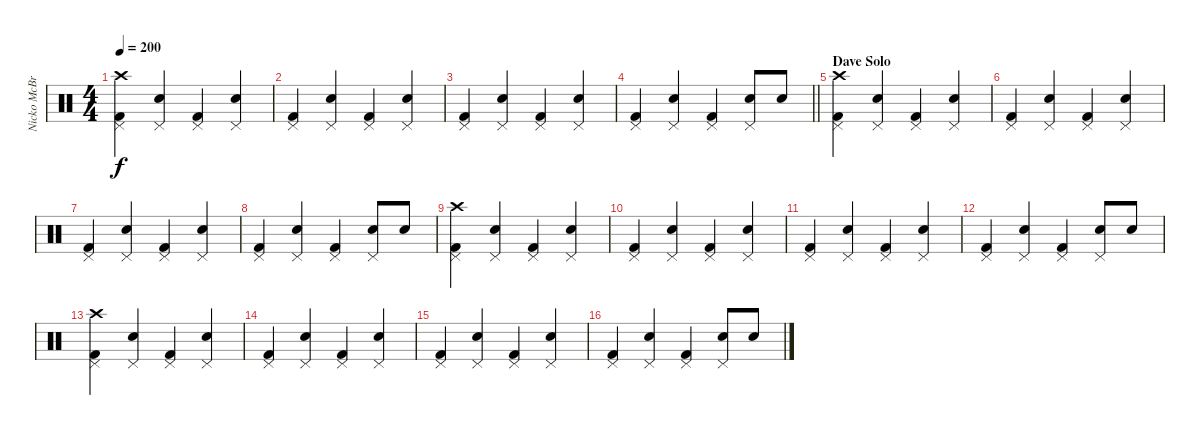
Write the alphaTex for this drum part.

\track ("Nicko McBrain" "Nicko McBr") {instrument percussion}
\staff {score}
\articulation defaults
\ts (4 4)
\tempo 200
\clef neutral
\ks c
("Pedal Hi-Hat (hit)" "Kick (hit) 2" "Crash high (hit)").4{dy f} ("Pedal Hi-Hat (hit)" "Snare (hit) 2").4 ("Pedal Hi-Hat (hit)" "Kick (hit) 2").4 ("Pedal Hi-Hat (hit)" "Snare (hit) 2").4 |
("Pedal Hi-Hat (hit)" "Kick (hit) 2").4 ("Pedal Hi-Hat (hit)" "Snare (hit) 2").4 ("Pedal Hi-Hat (hit)" "Kick (hit) 2").4 ("Pedal Hi-Hat (hit)" "Snare (hit) 2").4 |
("Pedal Hi-Hat (hit)" "Kick (hit) 2").4 ("Pedal Hi-Hat (hit)" "Snare (hit) 2").4 ("Pedal Hi-Hat (hit)" "Kick (hit) 2").4 ("Pedal Hi-Hat (hit)" "Snare (hit) 2").4 |
\barLineRight lightlight
("Pedal Hi-Hat (hit)" "Kick (hit) 2").4 ("Pedal Hi-Hat (hit)" "Snare (hit) 2").4 ("Pedal Hi-Hat (hit)" "Kick (hit) 2").4 ("Pedal Hi-Hat (hit)" "Snare (hit) 2").8 "Snare (hit) 2".8 |
\section ("" "Dave Solo")
("Pedal Hi-Hat (hit)" "Kick (hit) 2" "Crash high (hit)").4 ("Pedal Hi-Hat (hit)" "Snare (hit) 2").4 ("Pedal Hi-Hat (hit)" "Kick (hit) 2").4 ("Pedal Hi-Hat (hit)" "Snare (hit) 2").4 |
("Pedal Hi-Hat (hit)" "Kick (hit) 2").4 ("Pedal Hi-Hat (hit)" "Snare (hit) 2").4 ("Pedal Hi-Hat (hit)" "Kick (hit) 2").4 ("Pedal Hi-Hat (hit)" "Snare (hit) 2").4 |
("Pedal Hi-Hat (hit)" "Kick (hit) 2").4 ("Pedal Hi-Hat (hit)" "Snare (hit) 2").4 ("Pedal Hi-Hat (hit)" "Kick (hit) 2").4 ("Pedal Hi-Hat (hit)" "Snare (hit) 2").4 |
("Pedal Hi-Hat (hit)" "Kick (hit) 2").4 ("Pedal Hi-Hat (hit)" "Snare (hit) 2").4 ("Pedal Hi-Hat (hit)" "Kick (hit) 2").4 ("Pedal Hi-Hat (hit)" "Snare (hit) 2").8 "Snare (hit) 2".8 |
("Pedal Hi-Hat (hit)" "Kick (hit) 2" "Crash high (hit)").4 ("Pedal Hi-Hat (hit)" "Snare (hit) 2").4 ("Pedal Hi-Hat (hit)" "Kick (hit) 2").4 ("Pedal Hi-Hat (hit)" "Snare (hit) 2").4 |
("Pedal Hi-Hat (hit)" "Kick (hit) 2").4 ("Pedal Hi-Hat (hit)" "Snare (hit) 2").4 ("Pedal Hi-Hat (hit)" "Kick (hit) 2").4 ("Pedal Hi-Hat (hit)" "Snare (hit) 2").4 |
("Pedal Hi-Hat (hit)" "Kick (hit) 2").4 ("Pedal Hi-Hat (hit)" "Snare (hit) 2").4 ("Pedal Hi-Hat (hit)" "Kick (hit) 2").4 ("Pedal Hi-Hat (hit)" "Snare (hit) 2").4 |
("Pedal Hi-Hat (hit)" "Kick (hit) 2").4 ("Pedal Hi-Hat (hit)" "Snare (hit) 2").4 ("Pedal Hi-Hat (hit)" "Kick (hit) 2").4 ("Pedal Hi-Hat (hit)" "Snare (hit) 2").8 "Snare (hit) 2".8 |
("Pedal Hi-Hat (hit)" "Kick (hit) 2" "Crash high (hit)").4 ("Pedal Hi-Hat (hit)" "Snare (hit) 2").4 ("Pedal Hi-Hat (hit)" "Kick (hit) 2").4 ("Pedal Hi-Hat (hit)" "Snare (hit) 2").4 |
("Pedal Hi-Hat (hit)" "Kick (hit) 2").4 ("Pedal Hi-Hat (hit)" "Snare (hit) 2").4 ("Pedal Hi-Hat (hit)" "Kick (hit) 2").4 ("Pedal Hi-Hat (hit)" "Snare (hit) 2").4 |
("Pedal Hi-Hat (hit)" "Kick (hit) 2").4 ("Pedal Hi-Hat (hit)" "Snare (hit) 2").4 ("Pedal Hi-Hat (hit)" "Kick (hit) 2").4 ("Pedal Hi-Hat (hit)" "Snare (hit) 2").4 |
("Pedal Hi-Hat (hit)" "Kick (hit) 2").4 ("Pedal Hi-Hat (hit)" "Snare (hit) 2").4 ("Pedal Hi-Hat (hit)" "Kick (hit) 2").4 ("Pedal Hi-Hat (hit)" "Snare (hit) 2").8 "Snare (hit) 2".8
